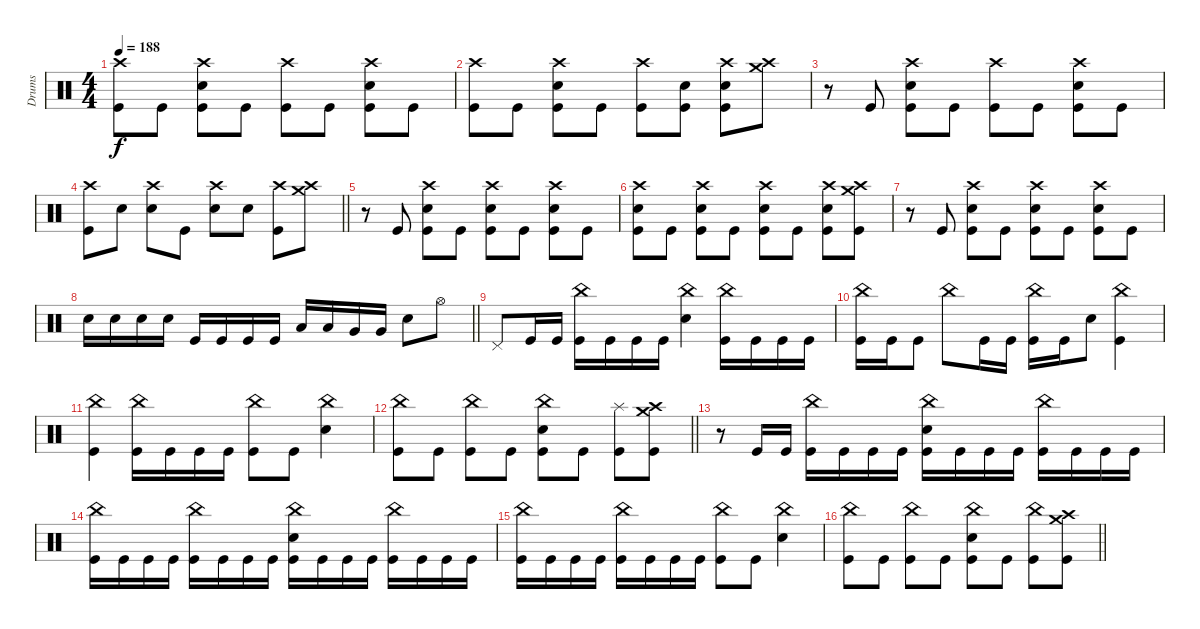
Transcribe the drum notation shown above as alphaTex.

\track ("Drums" "Drums") {instrument percussion}
\staff
\articulation defaults
\ts (4 4)
\tempo 188
\clef neutral
\ks c
("Crash high (hit)" "Kick (hit)").8{dy f} "Kick (hit)".8 ("Crash high (hit)" "Electric Snare (hit)" "Kick (hit)").8 "Kick (hit)".8 ("Crash high (hit)" "Kick (hit)").8 "Kick (hit)".8 ("Crash high (hit)" "Electric Snare (hit)" "Kick (hit)").8 "Kick (hit)".8 |
("Crash high (hit)" "Kick (hit)").8 "Kick (hit)".8 ("Crash high (hit)" "Electric Snare (hit)" "Kick (hit)").8 "Kick (hit)".8 ("Crash high (hit)" "Kick (hit)").8 ("Electric Snare (hit)" "Kick (hit)").8 ("Crash high (hit)" "Electric Snare (hit)" "Kick (hit)").8 ("Crash high (hit)" "Crash medium (hit)").8 |
r.8 "Kick (hit)".8 ("Crash high (hit)" "Electric Snare (hit)" "Kick (hit)").8 "Kick (hit)".8 ("Crash high (hit)" "Kick (hit)").8 "Kick (hit)".8 ("Crash high (hit)" "Electric Snare (hit)" "Kick (hit)").8 "Kick (hit)".8 |
\barLineRight lightlight
("Crash high (hit)" "Kick (hit)").8 "Electric Snare (hit)".8 ("Crash high (hit)" "Electric Snare (hit)").8 "Kick (hit)".8 ("Crash high (hit)" "Electric Snare (hit)").8 "Electric Snare (hit)".8 ("Crash high (hit)" "Kick (hit)").8 ("Crash high (hit)" "Crash medium (hit)").8 |
r.8 "Kick (hit)".8 ("Crash high (hit)" "Electric Snare (hit)" "Kick (hit)").8 "Kick (hit)".8 ("Crash high (hit)" "Electric Snare (hit)" "Kick (hit)").8 "Kick (hit)".8 ("Crash high (hit)" "Electric Snare (hit)" "Kick (hit)").8 "Kick (hit)".8 |
("Crash high (hit)" "Electric Snare (hit)" "Kick (hit)").8 "Kick (hit)".8 ("Crash high (hit)" "Electric Snare (hit)" "Kick (hit)").8 "Kick (hit)".8 ("Crash high (hit)" "Electric Snare (hit)" "Kick (hit)").8 "Kick (hit)".8 ("Crash high (hit)" "Electric Snare (hit)" "Kick (hit)").8 ("Crash high (hit)" "Crash medium (hit)" "Kick (hit)").8 |
r.8 "Kick (hit)".8 ("Crash high (hit)" "Electric Snare (hit)" "Kick (hit)").8 "Kick (hit)".8 ("Crash high (hit)" "Electric Snare (hit)" "Kick (hit)").8 "Kick (hit)".8 ("Crash high (hit)" "Electric Snare (hit)" "Kick (hit)").8 "Kick (hit)".8 |
\barLineRight lightlight "Electric Snare (hit)".16 "Electric Snare (hit)".16 "Electric Snare (hit)".16 "Electric Snare (hit)".16 "Kick (hit)".16 "Kick (hit)".16 "Kick (hit)".16 "Kick (hit)".16 "Low Tom (hit)".16 "Low Tom (hit)".16 "Very Low Tom (hit)".16 "Very Low Tom (hit)".16 "Electric Snare (hit)".8 "Hi-Hat (open)".8
|
\section ("" "")
"Pedal Hi-Hat (hit)".8 "Kick (hit)".16 "Kick (hit)".16 ("China (hit)" "Kick (hit)").16 "Kick (hit)".16 "Kick (hit)".16 "Kick (hit)".16 ("China (hit)" "Electric Snare (hit)").4 ("China (hit)" "Kick (hit)").16 "Kick (hit)".16 "Kick (hit)".16 "Kick (hit)".16 |
("China (hit)" "Kick (hit)").16 "Kick (hit)".16 "Kick (hit)".8 "China (hit)".8 "Kick (hit)".16 "Kick (hit)".16 ("China (hit)" "Kick (hit)").16 "Kick (hit)".16 "Electric Snare (hit)".8 ("China (hit)" "Kick (hit)").4 |
("China (hit)" "Kick (hit)").4 ("China (hit)" "Kick (hit)").16 "Kick (hit)".16 "Kick (hit)".16 "Kick (hit)".16 ("China (hit)" "Kick (hit)").8 "Kick (hit)".8 ("China (hit)" "Electric Snare (hit)").4 |
\barLineRight lightlight
("China (hit)" "Kick (hit)").8 "Kick (hit)".8 ("China (hit)" "Kick (hit)").8 "Kick (hit)".8 ("China (hit)" "Electric Snare (hit)" "Kick (hit)").8 "Kick (hit)".8 ("Splash (hit)" "Kick (hit)").8 ("Crash high (hit)" "Crash medium (hit)" "Kick (hit)").8 |
r.8 "Kick (hit)".16 "Kick (hit)".16 ("China (hit)" "Kick (hit)").16 "Kick (hit)".16 "Kick (hit)".16 "Kick (hit)".16 ("China (hit)" "Electric Snare (hit)" "Kick (hit)").16 "Kick (hit)".16 "Kick (hit)".16 "Kick (hit)".16 ("China (hit)" "Kick (hit)").16 "Kick (hit)".16 "Kick (hit)".16 "Kick (hit)".16 |
("China (hit)" "Kick (hit)").16 "Kick (hit)".16 "Kick (hit)".16 "Kick (hit)".16 ("China (hit)" "Kick (hit)").16 "Kick (hit)".16 "Kick (hit)".16 "Kick (hit)".16 ("China (hit)" "Electric Snare (hit)" "Kick (hit)").16 "Kick (hit)".16 "Kick (hit)".16 "Kick (hit)".16 ("China (hit)" "Kick (hit)").16 "Kick (hit)".16 "Kick (hit)".16 "Kick (hit)".16 |
("China (hit)" "Kick (hit)").16 "Kick (hit)".16 "Kick (hit)".16 "Kick (hit)".16 ("China (hit)" "Kick (hit)").16 "Kick (hit)".16 "Kick (hit)".16 "Kick (hit)".16 ("China (hit)" "Kick (hit)").8 "Kick (hit)".8 ("China (hit)" "Electric Snare (hit)").4 |
\barLineRight lightlight
("China (hit)" "Kick (hit)").8 "Kick (hit)".8 ("China (hit)" "Kick (hit)").8 "Kick (hit)".8 ("China (hit)" "Electric Snare (hit)" "Kick (hit)").8 "Kick (hit)".8 ("China (hit)" "Kick (hit)").8 ("Crash high (hit)" "Crash medium (hit)" "Kick (hit)").8
